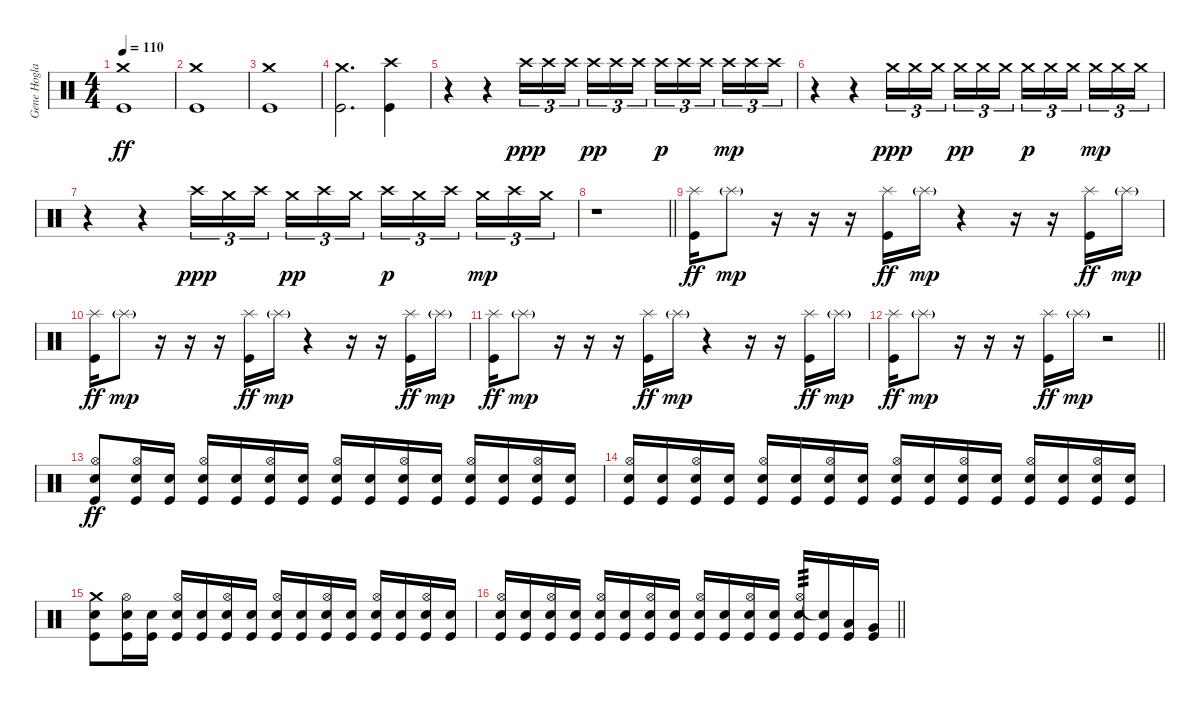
\track ("Gene Hoglan" "Gene Hogla") {instrument percussion}
\staff {score}
\articulation defaults
\ts (4 4)
\tempo 110
\clef neutral
\ks c
("Crash medium (hit)" "Kick (hit)").1{dy ff} |
("Crash medium (hit)" "Kick (hit)").1 |
("Crash medium (hit)" "Kick (hit)").1 |
("Crash medium (hit)" "Kick (hit)").2{d} ("Crash high (hit)" "Kick (hit)").4 |
r.4 r.4 "Crash high (hit)".16{tu (3 2) dy ppp} "Crash high (hit)".16{tu (3 2)} "Crash high (hit)".16{tu (3 2) beam splitsecondary} "Crash high (hit)".16{tu (3 2) dy pp} "Crash high (hit)".16{tu (3 2)} "Crash high (hit)".16{tu (3 2)} "Crash high (hit)".16{tu (3 2) dy p} "Crash high (hit)".16{tu (3 2)} "Crash high (hit)".16{tu (3 2) beam splitsecondary} "Crash high (hit)".16{tu (3 2) dy mp} "Crash high (hit)".16{tu (3 2)} "Crash high (hit)".16{tu (3 2)} |
r.4 r.4 "Crash medium (hit)".16{tu (3 2) dy ppp} "Crash medium (hit)".16{tu (3 2)} "Crash medium (hit)".16{tu (3 2) beam splitsecondary} "Crash medium (hit)".16{tu (3 2) dy pp} "Crash medium (hit)".16{tu (3 2)} "Crash medium (hit)".16{tu (3 2)} "Crash medium (hit)".16{tu (3 2) dy p} "Crash medium (hit)".16{tu (3 2)} "Crash medium (hit)".16{tu (3 2) beam splitsecondary} "Crash medium (hit)".16{tu (3 2) dy mp} "Crash medium (hit)".16{tu (3 2)} "Crash medium (hit)".16{tu (3 2)} |
r.4 r.4 "Crash high (hit)".16{tu (3 2) dy ppp} "Crash medium (hit)".16{tu (3 2)} "Crash high (hit)".16{tu (3 2) beam splitsecondary} "Crash medium (hit)".16{tu (3 2) dy pp} "Crash high (hit)".16{tu (3 2)} "Crash medium (hit)".16{tu (3 2)} "Crash high (hit)".16{tu (3 2) dy p} "Crash medium (hit)".16{tu (3 2)} "Crash high (hit)".16{tu (3 2) beam splitsecondary} "Crash medium (hit)".16{tu (3 2) dy mp} "Crash high (hit)".16{tu (3 2)} "Crash medium (hit)".16{tu (3 2)} |
\barLineRight lightlight
r.1 |
\section ("" "")
("Splash (hit)" "Kick (hit)").16{dy ff} "Splash (hit)"{g}.8{dy mp} r.16 r.16 r.16 ("Splash (hit)" "Kick (hit)").16{dy ff} "Splash (hit)"{g}.16{dy mp} r.4 r.16 r.16 ("Splash (hit)" "Kick (hit)").16{dy ff} "Splash (hit)"{g}.16{dy mp} |
("Splash (hit)" "Kick (hit)").16{dy ff} "Splash (hit)"{g}.8{dy mp} r.16 r.16 r.16 ("Splash (hit)" "Kick (hit)").16{dy ff} "Splash (hit)"{g}.16{dy mp} r.4 r.16 r.16 ("Splash (hit)" "Kick (hit)").16{dy ff} "Splash (hit)"{g}.16{dy mp} |
("Splash (hit)" "Kick (hit)").16{dy ff} "Splash (hit)"{g}.8{dy mp} r.16 r.16 r.16 ("Splash (hit)" "Kick (hit)").16{dy ff} "Splash (hit)"{g}.16{dy mp} r.4 r.16 r.16 ("Splash (hit)" "Kick (hit)").16{dy ff} "Splash (hit)"{g}.16{dy mp} |
\barLineRight lightlight
("Splash (hit)" "Kick (hit)").16{dy ff} "Splash (hit)"{g}.8{dy mp} r.16 r.16 r.16 ("Splash (hit)" "Kick (hit)").16{dy ff} "Splash (hit)"{g}.16{dy mp} r.2 |
\section ("" "")
("Hi-Hat (open)" "Electric Snare (hit)" "Kick (hit)").8{dy ff} ("Hi-Hat (open)" "Electric Snare (hit)" "Kick (hit)").16 ("Electric Snare (hit)" "Kick (hit)").16 ("Hi-Hat (open)" "Electric Snare (hit)" "Kick (hit)").16 ("Electric Snare (hit)" "Kick (hit)").16 ("Hi-Hat (open)" "Electric Snare (hit)" "Kick (hit)").16 ("Electric Snare (hit)" "Kick (hit)").16 ("Hi-Hat (open)" "Electric Snare (hit)" "Kick (hit)").16 ("Electric Snare (hit)" "Kick (hit)").16 ("Hi-Hat (open)" "Electric Snare (hit)" "Kick (hit)").16 ("Electric Snare (hit)" "Kick (hit)").16 ("Hi-Hat (open)" "Electric Snare (hit)" "Kick (hit)").16 ("Electric Snare (hit)" "Kick (hit)").16 ("Hi-Hat (open)" "Electric Snare (hit)" "Kick (hit)").16 ("Electric Snare (hit)" "Kick (hit)").16 |
("Hi-Hat (open)" "Electric Snare (hit)" "Kick (hit)").16 ("Electric Snare (hit)" "Kick (hit)").16 ("Hi-Hat (open)" "Electric Snare (hit)" "Kick (hit)").16 ("Electric Snare (hit)" "Kick (hit)").16 ("Hi-Hat (open)" "Electric Snare (hit)" "Kick (hit)").16 ("Electric Snare (hit)" "Kick (hit)").16 ("Hi-Hat (open)" "Electric Snare (hit)" "Kick (hit)").16 ("Electric Snare (hit)" "Kick (hit)").16 ("Hi-Hat (open)" "Electric Snare (hit)" "Kick (hit)").16 ("Electric Snare (hit)" "Kick (hit)").16 ("Hi-Hat (open)" "Electric Snare (hit)" "Kick (hit)").16 ("Electric Snare (hit)" "Kick (hit)").16 ("Hi-Hat (open)" "Electric Snare (hit)" "Kick (hit)").16 ("Electric Snare (hit)" "Kick (hit)").16 ("Hi-Hat (open)" "Electric Snare (hit)" "Kick (hit)").16 ("Electric Snare (hit)" "Kick (hit)").16 |
("Crash medium (hit)" "Electric Snare (hit)" "Kick (hit)").8 ("Hi-Hat (open)" "Electric Snare (hit)" "Kick (hit)").16 ("Electric Snare (hit)" "Kick (hit)").16 ("Hi-Hat (open)" "Electric Snare (hit)" "Kick (hit)").16 ("Electric Snare (hit)" "Kick (hit)").16 ("Hi-Hat (open)" "Electric Snare (hit)" "Kick (hit)").16 ("Electric Snare (hit)" "Kick (hit)").16 ("Hi-Hat (open)" "Electric Snare (hit)" "Kick (hit)").16 ("Electric Snare (hit)" "Kick (hit)").16 ("Hi-Hat (open)" "Electric Snare (hit)" "Kick (hit)").16 ("Electric Snare (hit)" "Kick (hit)").16 ("Hi-Hat (open)" "Electric Snare (hit)" "Kick (hit)").16 ("Electric Snare (hit)" "Kick (hit)").16 ("Hi-Hat (open)" "Electric Snare (hit)" "Kick (hit)").16 ("Electric Snare (hit)" "Kick (hit)").16 |
\barLineRight lightlight
("Hi-Hat (open)" "Electric Snare (hit)" "Kick (hit)").16 ("Electric Snare (hit)" "Kick (hit)").16 ("Hi-Hat (open)" "Electric Snare (hit)" "Kick (hit)").16 ("Electric Snare (hit)" "Kick (hit)").16 ("Hi-Hat (open)" "Electric Snare (hit)" "Kick (hit)").16 ("Electric Snare (hit)" "Kick (hit)").16 ("Hi-Hat (open)" "Electric Snare (hit)" "Kick (hit)").16 ("Electric Snare (hit)" "Kick (hit)").16 ("Hi-Hat (open)" "Electric Snare (hit)" "Kick (hit)").16 ("Electric Snare (hit)" "Kick (hit)").16 ("Hi-Hat (open)" "Electric Snare (hit)" "Kick (hit)").16 ("Electric Snare (hit)" "Kick (hit)").16 ("Hi-Hat (open)" "Electric Snare (hit)" "Kick (hit)").16{tp 3} ("Electric Snare (hit)"{t} "Kick (hit)").16 ("Low Tom (hit)" "Kick (hit)").16 ("Very Low Tom (hit)" "Kick (hit)").16
